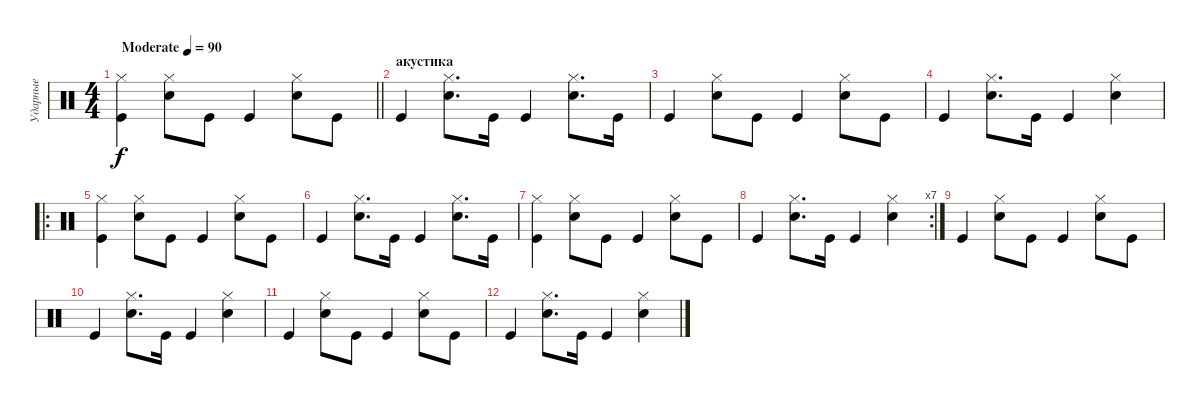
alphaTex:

\track ("Ударные" "Ударные") {instrument percussion bank 7}
\staff {score}
\articulation defaults
\ts (4 4)
\tempo (90 "Moderate")
\clef neutral
\barLineRight lightlight
\ks c
("Hi-Hat (closed)" "Kick (hit)").4{dy f} ("Hi-Hat (closed)" "Snare (hit) 2").8 "Kick (hit)".8 "Kick (hit)".4 ("Hi-Hat (closed)" "Snare (hit) 2").8 "Kick (hit)".8 |
\section ("" "акустика")
"Kick (hit)".4 ("Snare (hit) 2" "Hi-Hat (closed)").8{d} "Kick (hit)".16 "Kick (hit)".4 ("Hi-Hat (closed)" "Snare (hit) 2").8{d} "Kick (hit)".16 |
"Kick (hit)".4 ("Snare (hit) 2" "Hi-Hat (closed)").8 "Kick (hit)".8 "Kick (hit)".4 ("Hi-Hat (closed)" "Snare (hit) 2").8 "Kick (hit)".8 |
"Kick (hit)".4 ("Hi-Hat (closed)" "Snare (hit) 2").8{d} "Kick (hit)".16 "Kick (hit)".4 ("Snare (hit) 2" "Hi-Hat (closed)").4 |
\ro
("Hi-Hat (closed)" "Kick (hit)").4 ("Hi-Hat (closed)" "Snare (hit) 2").8 "Kick (hit)".8 "Kick (hit)".4 ("Hi-Hat (closed)" "Snare (hit) 2").8 "Kick (hit)".8 |
"Kick (hit)".4 ("Snare (hit) 2" "Hi-Hat (closed)").8{d} "Kick (hit)".16 "Kick (hit)".4 ("Hi-Hat (closed)" "Snare (hit) 2").8{d} "Kick (hit)".16 |
("Hi-Hat (closed)" "Kick (hit)").4 ("Hi-Hat (closed)" "Snare (hit) 2").8 "Kick (hit)".8 "Kick (hit)".4 ("Hi-Hat (closed)" "Snare (hit) 2").8 "Kick (hit)".8 |
\rc 7 "Kick (hit)".4
("Hi-Hat (closed)" "Snare (hit) 2").8{d} "Kick (hit)".16 "Kick (hit)".4 ("Snare (hit) 2" "Hi-Hat (closed)").4 |
"Kick (hit)".4 ("Snare (hit) 2" "Hi-Hat (closed)").8 "Kick (hit)".8 "Kick (hit)".4 ("Hi-Hat (closed)" "Snare (hit) 2").8 "Kick (hit)".8 |
"Kick (hit)".4 ("Hi-Hat (closed)" "Snare (hit) 2").8{d} "Kick (hit)".16 "Kick (hit)".4 ("Snare (hit) 2" "Hi-Hat (closed)").4 |
"Kick (hit)".4 ("Snare (hit) 2" "Hi-Hat (closed)").8 "Kick (hit)".8 "Kick (hit)".4 ("Hi-Hat (closed)" "Snare (hit) 2").8 "Kick (hit)".8 |
"Kick (hit)".4 ("Hi-Hat (closed)" "Snare (hit) 2").8{d} "Kick (hit)".16 "Kick (hit)".4 ("Snare (hit) 2" "Hi-Hat (closed)").4
